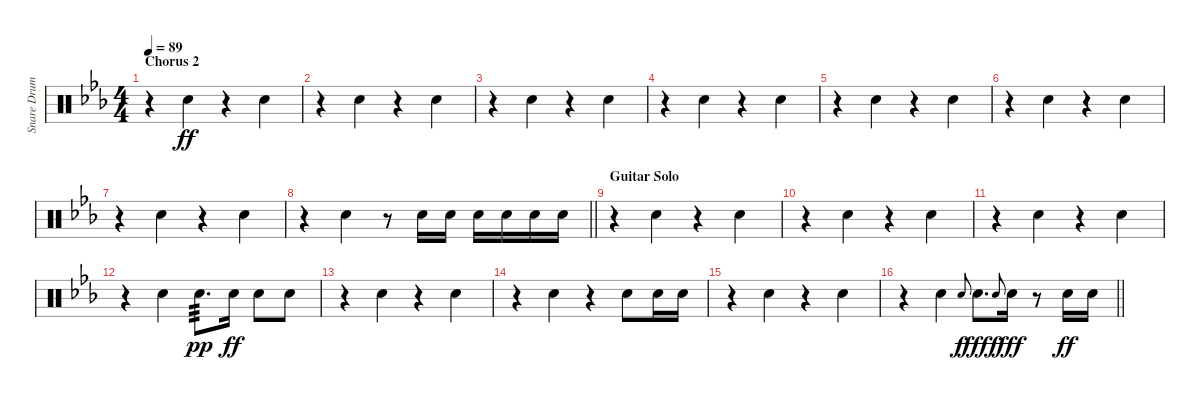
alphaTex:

\track ("Snare Drum" "Snare Drum") {instrument percussion}
\staff {score}
\articulation defaults
\ts (4 4)
\section ("" "Chorus 2")
\tempo 89
\clef neutral
\ks eb
r.4{dy ff beam merge} "Electric Snare (hit)".4 r.4{beam merge} "Electric Snare (hit)".4 |
r.4{beam merge} "Electric Snare (hit)".4 r.4{beam merge} "Electric Snare (hit)".4 |
r.4{beam merge} "Electric Snare (hit)".4 r.4{beam merge} "Electric Snare (hit)".4 |
r.4{beam merge} "Electric Snare (hit)".4 r.4{beam merge} "Electric Snare (hit)".4 |
r.4{beam merge} "Electric Snare (hit)".4 r.4{beam merge} "Electric Snare (hit)".4 |
r.4{beam merge} "Electric Snare (hit)".4 r.4{beam merge} "Electric Snare (hit)".4 |
r.4{beam merge} "Electric Snare (hit)".4 r.4{beam merge} "Electric Snare (hit)".4 |
\barLineRight lightlight
r.4{beam merge} "Electric Snare (hit)".4 r.8 "Electric Snare (hit)".16 "Electric Snare (hit)".16 "Electric Snare (hit)".16 "Electric Snare (hit)".16 "Electric Snare (hit)".16 "Electric Snare (hit)".16 |
\section ("" "Guitar Solo")
r.4{beam merge} "Electric Snare (hit)".4 r.4{beam merge} "Electric Snare (hit)".4 |
r.4{beam merge} "Electric Snare (hit)".4 r.4{beam merge} "Electric Snare (hit)".4 |
r.4{beam merge} "Electric Snare (hit)".4 r.4{beam merge} "Electric Snare (hit)".4 |
r.4{beam merge} "Electric Snare (hit)".4 "Snare (hit) 2".8{d tp 3 dy pp} "Electric Snare (hit)".16{dy ff} "Electric Snare (hit)".8 "Electric Snare (hit)".8 |
r.4{beam merge} "Electric Snare (hit)".4 r.4{beam merge} "Electric Snare (hit)".4 |
r.4{beam merge} "Electric Snare (hit)".4 r.4 "Electric Snare (hit)".8 "Electric Snare (hit)".16 "Electric Snare (hit)".16 |
r.4{beam merge} "Electric Snare (hit)".4 r.4{beam merge} "Electric Snare (hit)".4 |
\barLineRight lightlight
r.4{beam merge} "Electric Snare (hit)".4 "Electric Snare (hit)".8{gr onbeat dy f} "Electric Snare (hit)".8{d dy fff} "Electric Snare (hit)".8{gr onbeat dy f} "Electric Snare (hit)".16{dy fff} r.8 "Electric Snare (hit)".16{dy ff} "Electric Snare (hit)".16
